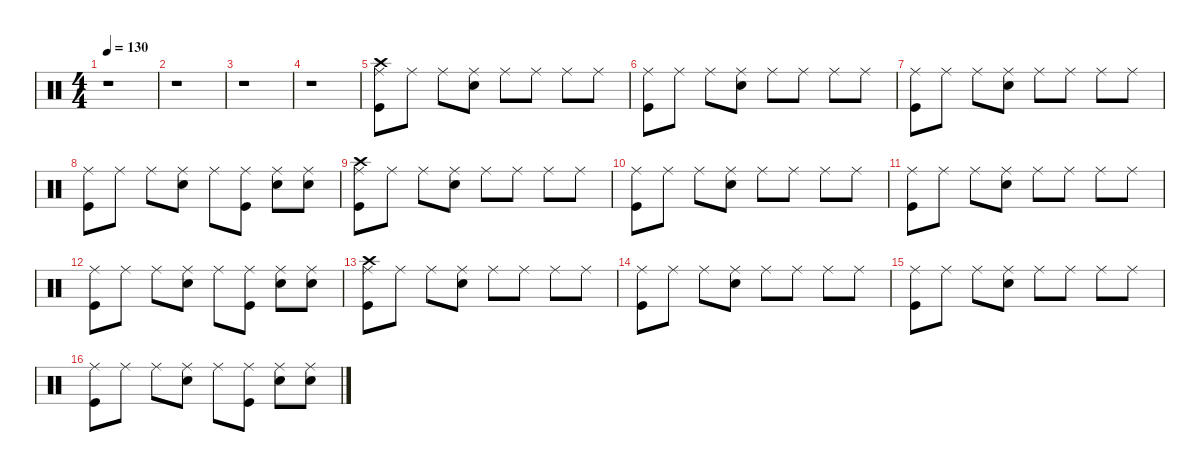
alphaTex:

\defaultSystemsLayout 4
\hideDynamics
\bracketExtendMode nobrackets
\singleTrackTrackNamePolicy hidden
\multiTrackTrackNamePolicy hidden
\firstSystemTrackNameMode fullname
\firstSystemTrackNameOrientation horizontal
\otherSystemsTrackNameOrientation horizontal
\track ("Percussion" "drm.") {defaultSystemsLayout 2 instrument percussion}
\staff {score}
\articulation defaults
\ts (4 4)
\tempo 130
\clef neutral
\ks c
r.1{dy f beam Down} |
r.1{beam Down} |
r.1{beam Down} |
r.1{beam Down} |
("Crash high (hit)" "Ride (middle)" "Kick (hit)").8{beam Down} "Ride (middle)".8{beam Down} "Ride (middle)".8{beam Down} ("Ride (middle)" "Snare (hit) 2").8{beam Down} "Ride (middle)".8{beam Down} "Ride (middle)".8{beam Down} "Ride (middle)".8{beam Down} "Ride (middle)".8{beam Down} |
("Ride (middle)" "Kick (hit)").8{beam Down} "Ride (middle)".8{beam Down} "Ride (middle)".8{beam Down} ("Ride (middle)" "Snare (hit) 2").8{beam Down} "Ride (middle)".8{beam Down} "Ride (middle)".8{beam Down} "Ride (middle)".8{beam Down} "Ride (middle)".8{beam Down} |
("Ride (middle)" "Kick (hit)").8{beam Down} "Ride (middle)".8{beam Down} "Ride (middle)".8{beam Down} ("Ride (middle)" "Snare (hit) 2").8{beam Down} "Ride (middle)".8{beam Down} "Ride (middle)".8{beam Down} "Ride (middle)".8{beam Down} "Ride (middle)".8{beam Down} |
("Ride (middle)" "Kick (hit)").8{beam Down} "Ride (middle)".8{beam Down} "Ride (middle)".8{beam Down} ("Ride (middle)" "Snare (hit) 2").8{beam Down} "Ride (middle)".8{beam Down} ("Ride (middle)" "Kick (hit)").8{beam Down} ("Ride (middle)" "Snare (hit) 2").8{beam Down} ("Ride (middle)" "Snare (hit) 2").8{beam Down} |
("Crash high (hit)" "Ride (middle)" "Kick (hit)").8{beam Down} "Ride (middle)".8{beam Down} "Ride (middle)".8{beam Down} ("Ride (middle)" "Snare (hit) 2").8{beam Down} "Ride (middle)".8{beam Down} "Ride (middle)".8{beam Down} "Ride (middle)".8{beam Down} "Ride (middle)".8{beam Down} |
("Ride (middle)" "Kick (hit)").8{beam Down} "Ride (middle)".8{beam Down} "Ride (middle)".8{beam Down} ("Ride (middle)" "Snare (hit) 2").8{beam Down} "Ride (middle)".8{beam Down} "Ride (middle)".8{beam Down} "Ride (middle)".8{beam Down} "Ride (middle)".8{beam Down} |
("Ride (middle)" "Kick (hit)").8{beam Down} "Ride (middle)".8{beam Down} "Ride (middle)".8{beam Down} ("Ride (middle)" "Snare (hit) 2").8{beam Down} "Ride (middle)".8{beam Down} "Ride (middle)".8{beam Down} "Ride (middle)".8{beam Down} "Ride (middle)".8{beam Down} |
("Ride (middle)" "Kick (hit)").8{beam Down} "Ride (middle)".8{beam Down} "Ride (middle)".8{beam Down} ("Ride (middle)" "Snare (hit) 2").8{beam Down} "Ride (middle)".8{beam Down} ("Ride (middle)" "Kick (hit)").8{beam Down} ("Ride (middle)" "Snare (hit) 2").8{beam Down} ("Ride (middle)" "Snare (hit) 2").8{beam Down} |
("Crash high (hit)" "Ride (middle)" "Kick (hit)").8{beam Down} "Ride (middle)".8{beam Down} "Ride (middle)".8{beam Down} ("Ride (middle)" "Snare (hit) 2").8{beam Down} "Ride (middle)".8{beam Down} "Ride (middle)".8{beam Down} "Ride (middle)".8{beam Down} "Ride (middle)".8{beam Down} |
("Ride (middle)" "Kick (hit)").8{beam Down} "Ride (middle)".8{beam Down} "Ride (middle)".8{beam Down} ("Ride (middle)" "Snare (hit) 2").8{beam Down} "Ride (middle)".8{beam Down} "Ride (middle)".8{beam Down} "Ride (middle)".8{beam Down} "Ride (middle)".8{beam Down} |
("Ride (middle)" "Kick (hit)").8{beam Down} "Ride (middle)".8{beam Down} "Ride (middle)".8{beam Down} ("Ride (middle)" "Snare (hit) 2").8{beam Down} "Ride (middle)".8{beam Down} "Ride (middle)".8{beam Down} "Ride (middle)".8{beam Down} "Ride (middle)".8{beam Down} |
("Ride (middle)" "Kick (hit)").8{beam Down} "Ride (middle)".8{beam Down} "Ride (middle)".8{beam Down} ("Ride (middle)" "Snare (hit) 2").8{beam Down} "Ride (middle)".8{beam Down} ("Ride (middle)" "Kick (hit)").8{beam Down} ("Ride (middle)" "Snare (hit) 2").8{beam Down} ("Ride (middle)" "Snare (hit) 2").8{beam Down}
